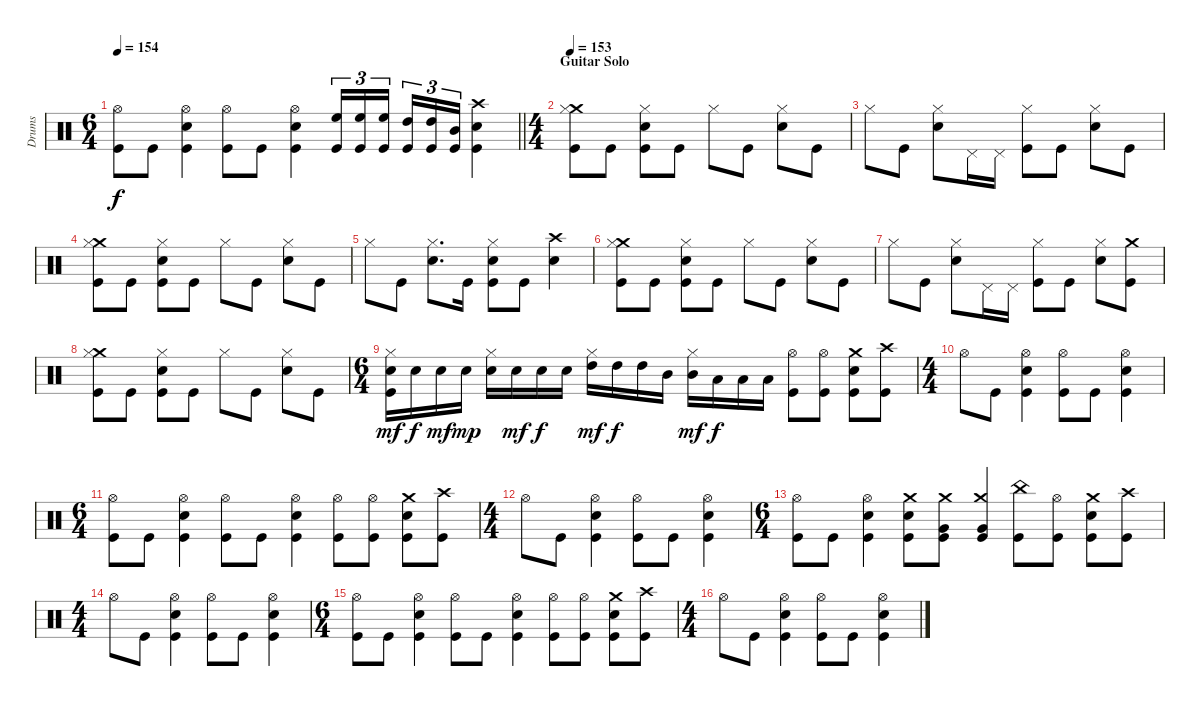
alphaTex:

\track ("Drums" "Drums") {instrument percussion}
\staff {score}
\articulation defaults
\ts (6 4)
\tempo 154
\clef neutral
\barLineRight lightlight
\ks c
("Hi-Hat (open)" "Kick (hit)").8{dy f} "Kick (hit)".8 ("Hi-Hat (open)" "Electric Snare (hit)" "Kick (hit)").4 ("Hi-Hat (open)" "Kick (hit)").8 "Kick (hit)".8 ("Hi-Hat (open)" "Electric Snare (hit)" "Kick (hit)").4 ("High Floor Tom (hit)" "Kick (hit)").16{tu (3 2)} ("High Floor Tom (hit)" "Kick (hit)").16{tu (3 2)} ("High Floor Tom (hit)" "Kick (hit)").16{tu (3 2) beam splitsecondary} ("High Tom (hit)" "Kick (hit)").16{tu (3 2)} ("High Tom (hit)" "Kick (hit)").16{tu (3 2)} ("Mid Tom (hit)" "Kick (hit)").16{tu (3 2)} ("Crash high (hit)" "Electric Snare (hit)" "Kick (hit)").4 |
\ts (4 4)
\section ("" "Guitar Solo")
\tempo 153
("Crash medium (hit)" "Hi-Hat (closed)" "Kick (hit)").8 "Kick (hit)".8 ("Hi-Hat (closed)" "Electric Snare (hit)" "Kick (hit)").8 "Kick (hit)".8 "Hi-Hat (closed)".8 "Kick (hit)".8 ("Hi-Hat (closed)" "Electric Snare (hit)").8 "Kick (hit)".8 |
"Hi-Hat (closed)".8 "Kick (hit)".8 ("Hi-Hat (closed)" "Electric Snare (hit)").8 "Pedal Hi-Hat (hit)".16 "Pedal Hi-Hat (hit)".16 ("Hi-Hat (closed)" "Kick (hit)").8 "Kick (hit)".8 ("Hi-Hat (closed)" "Electric Snare (hit)").8 "Kick (hit)".8 |
("Crash medium (hit)" "Hi-Hat (closed)" "Kick (hit)").8 "Kick (hit)".8 ("Hi-Hat (closed)" "Electric Snare (hit)" "Kick (hit)").8 "Kick (hit)".8 "Hi-Hat (closed)".8 "Kick (hit)".8 ("Hi-Hat (closed)" "Electric Snare (hit)").8 "Kick (hit)".8 |
"Hi-Hat (closed)".8 "Kick (hit)".8 ("Hi-Hat (closed)" "Electric Snare (hit)").8{d} "Kick (hit)".16 ("Hi-Hat (closed)" "Electric Snare (hit)" "Kick (hit)").8 "Kick (hit)".8 ("Crash high (hit)" "Electric Snare (hit)").4 |
("Crash medium (hit)" "Hi-Hat (closed)" "Kick (hit)").8 "Kick (hit)".8 ("Hi-Hat (closed)" "Electric Snare (hit)" "Kick (hit)").8 "Kick (hit)".8 "Hi-Hat (closed)".8 "Kick (hit)".8 ("Hi-Hat (closed)" "Electric Snare (hit)").8 "Kick (hit)".8 |
"Hi-Hat (closed)".8 "Kick (hit)".8 ("Hi-Hat (closed)" "Electric Snare (hit)").8 "Pedal Hi-Hat (hit)".16 "Pedal Hi-Hat (hit)".16 ("Hi-Hat (closed)" "Kick (hit)").8 "Kick (hit)".8 ("Hi-Hat (closed)" "Electric Snare (hit)").8 ("Crash medium (hit)" "Kick (hit)").8 |
("Crash medium (hit)" "Hi-Hat (closed)" "Kick (hit)").8 "Kick (hit)".8 ("Hi-Hat (closed)" "Electric Snare (hit)" "Kick (hit)").8 "Kick (hit)".8 "Hi-Hat (closed)".8 "Kick (hit)".8 ("Hi-Hat (closed)" "Electric Snare (hit)").8 "Kick (hit)".8 |
\ts (6 4)
("Hi-Hat (closed)" "Electric Snare (hit)" "Kick (hit)").16{dy mf} "Electric Snare (hit)".16{dy f} "Electric Snare (hit)".16{dy mf} "Electric Snare (hit)".16{dy mp} ("Hi-Hat (closed)" "Electric Snare (hit)").16 "Electric Snare (hit)".16{dy mf} "Electric Snare (hit)".16{dy f} "Electric Snare (hit)".16 ("Hi-Hat (closed)" "High Tom (hit)").16{dy mf} "High Tom (hit)".16{dy f} "High Tom (hit)".16 "Mid Tom (hit)".16 ("Hi-Hat (closed)" "Mid Tom (hit)").16{dy mf} "Low Tom (hit)".16{dy f} "Low Tom (hit)".16 "Low Tom (hit)".16 ("Hi-Hat (open)" "Kick (hit)").8 ("Hi-Hat (open)" "Kick (hit)").8 ("Crash medium (hit)" "Electric Snare (hit)" "Kick (hit)").8 ("Crash high (hit)" "Kick (hit)").8 |
\ts (4 4)
"Hi-Hat (open)".8 "Kick (hit)".8 ("Hi-Hat (open)" "Electric Snare (hit)" "Kick (hit)").4 ("Hi-Hat (open)" "Kick (hit)").8 "Kick (hit)".8 ("Hi-Hat (open)" "Electric Snare (hit)" "Kick (hit)").4 |
\ts (6 4)
("Hi-Hat (open)" "Kick (hit)").8 "Kick (hit)".8 ("Hi-Hat (open)" "Electric Snare (hit)" "Kick (hit)").4 ("Hi-Hat (open)" "Kick (hit)").8 "Kick (hit)".8 ("Hi-Hat (open)" "Electric Snare (hit)" "Kick (hit)").4 ("Hi-Hat (open)" "Kick (hit)").8 ("Hi-Hat (open)" "Kick (hit)").8 ("Crash medium (hit)" "Electric Snare (hit)" "Kick (hit)").8 ("Crash high (hit)" "Kick (hit)").8 |
\ts (4 4)
"Hi-Hat (open)".8 "Kick (hit)".8 ("Hi-Hat (open)" "Electric Snare (hit)" "Kick (hit)").4 ("Hi-Hat (open)" "Kick (hit)").8 "Kick (hit)".8 ("Hi-Hat (open)" "Electric Snare (hit)" "Kick (hit)").4 |
\ts (6 4)
("Hi-Hat (open)" "Kick (hit)").8 "Kick (hit)".8 ("Hi-Hat (open)" "Electric Snare (hit)" "Kick (hit)").4 ("Crash medium (hit)" "Electric Snare (hit)" "Kick (hit)").8 ("Crash medium (hit)" "Very Low Tom (hit)" "Kick (hit)").8 ("Crash medium (hit)" "Very Low Tom (hit)" "Kick (hit)").4 ("China (hit)" "Kick (hit)").8 ("Hi-Hat (open)" "Kick (hit)").8 ("Crash medium (hit)" "Electric Snare (hit)" "Kick (hit)").8 ("Crash high (hit)" "Kick (hit)").8 |
\ts (4 4)
"Hi-Hat (open)".8 "Kick (hit)".8 ("Hi-Hat (open)" "Electric Snare (hit)" "Kick (hit)").4 ("Hi-Hat (open)" "Kick (hit)").8 "Kick (hit)".8 ("Hi-Hat (open)" "Electric Snare (hit)" "Kick (hit)").4 |
\ts (6 4)
("Hi-Hat (open)" "Kick (hit)").8 "Kick (hit)".8 ("Hi-Hat (open)" "Electric Snare (hit)" "Kick (hit)").4 ("Hi-Hat (open)" "Kick (hit)").8 "Kick (hit)".8 ("Hi-Hat (open)" "Electric Snare (hit)" "Kick (hit)").4 ("Hi-Hat (open)" "Kick (hit)").8 ("Hi-Hat (open)" "Kick (hit)").8 ("Crash medium (hit)" "Electric Snare (hit)" "Kick (hit)").8 ("Crash high (hit)" "Kick (hit)").8 |
\ts (4 4)
"Hi-Hat (open)".8 "Kick (hit)".8 ("Hi-Hat (open)" "Electric Snare (hit)" "Kick (hit)").4 ("Hi-Hat (open)" "Kick (hit)").8 "Kick (hit)".8 ("Hi-Hat (open)" "Electric Snare (hit)" "Kick (hit)").4
